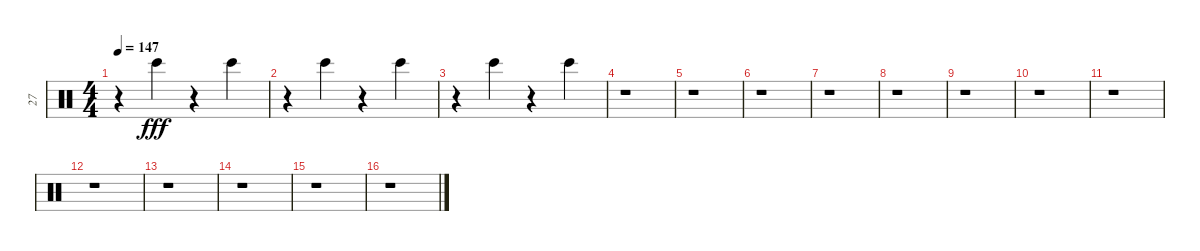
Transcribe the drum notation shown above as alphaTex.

\track ("27" "27") {instrument percussion}
\staff {score}
\articulation defaults
\ts (4 4)
\tempo 147
\clef neutral
\ks c
r.4{dy fff} "Bongo High (hit)".4 r.4 "Bongo High (hit)".4 |
r.4 "Bongo High (hit)".4 r.4 "Bongo High (hit)".4 |
r.4 "Bongo High (hit)".4 r.4 "Bongo High (hit)".4 |
r.1 |
r.1 |
r.1 |
r.1 |
r.1 |
r.1 |
r.1 |
r.1 |
r.1 |
r.1 |
r.1 |
r.1 |
r.1
